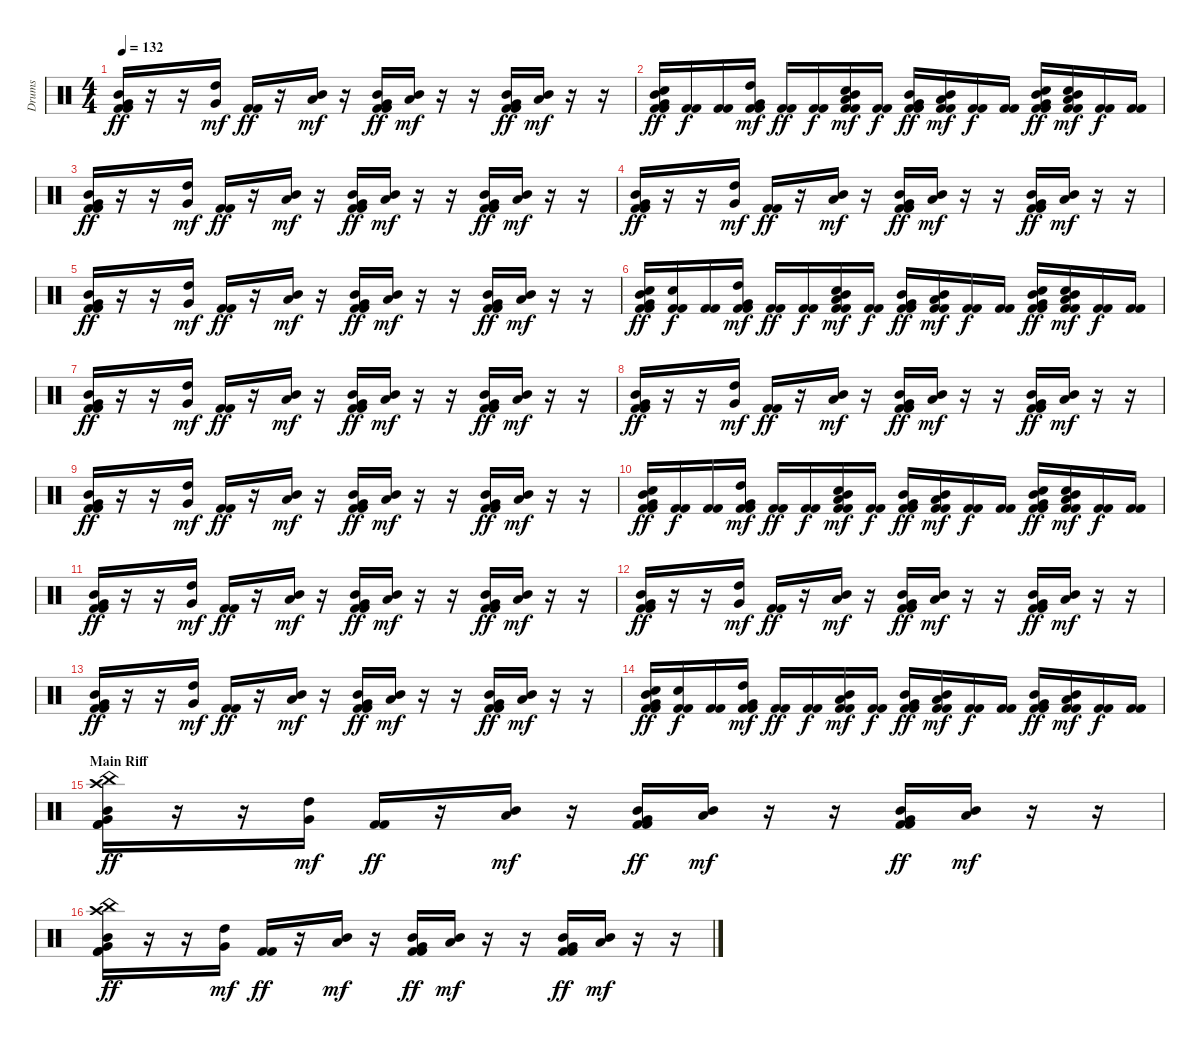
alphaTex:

\track ("Drums" "Drums") {instrument percussion}
\staff {score}
\articulation defaults
\ts (4 4)
\tempo 132
\clef neutral
\ks c
("Mid Tom (hit)" "Very Low Tom (hit)" "Kick (hit) 2" "Kick (hit) 2").16{dy ff} r.16 r.16 ("High Tom (hit)" "Very Low Tom (hit)").16{dy mf} ("Kick (hit) 2" "Kick (hit) 2").16{dy ff} r.16 ("Mid Tom (hit)" "Low Tom (hit)").16{dy mf} r.16 ("Mid Tom (hit)" "Very Low Tom (hit)" "Kick (hit) 2" "Kick (hit) 2").16{dy ff} ("Low Tom (hit)" "Mid Tom (hit)").16{dy mf} r.16 r.16 ("Mid Tom (hit)" "Very Low Tom (hit)" "Kick (hit) 2" "Kick (hit) 2").16{dy ff} ("Mid Tom (hit)" "Low Tom (hit)").16{dy mf} r.16 r.16 |
("Electric Snare (hit)" "Mid Tom (hit)" "Very Low Tom (hit)" "Kick (hit) 2" "Kick (hit) 2").16{dy ff} ("Kick (hit) 2" "Kick (hit) 2").16{dy f} ("Kick (hit) 2" "Kick (hit) 2").16 ("High Tom (hit)" "Very Low Tom (hit)" "Kick (hit) 2" "Kick (hit) 2").16{dy mf} ("Kick (hit) 2" "Kick (hit) 2").16{dy ff} ("Kick (hit) 2" "Kick (hit) 2").16{dy f} ("Electric Snare (hit)" "Mid Tom (hit)" "Low Tom (hit)" "Kick (hit) 2" "Kick (hit) 2").16{dy mf} ("Kick (hit) 2" "Kick (hit) 2").16{dy f} ("Mid Tom (hit)" "Very Low Tom (hit)" "Kick (hit) 2" "Kick (hit) 2").16{dy ff} ("Low Tom (hit)" "Mid Tom (hit)" "Kick (hit) 2" "Kick (hit) 2").16{dy mf} ("Kick (hit) 2" "Kick (hit) 2").16{dy f} ("Kick (hit) 2" "Kick (hit) 2").16 ("Electric Snare (hit)" "Mid Tom (hit)" "Very Low Tom (hit)" "Kick (hit) 2" "Kick (hit) 2").16{dy ff} ("Electric Snare (hit)" "Mid Tom (hit)" "Low Tom (hit)" "Kick (hit) 2" "Kick (hit) 2").16{dy mf} ("Kick (hit) 2" "Kick (hit) 2").16{dy f} ("Kick (hit) 2" "Kick (hit) 2").16 |
("Mid Tom (hit)" "Very Low Tom (hit)" "Kick (hit) 2" "Kick (hit) 2").16{dy ff} r.16 r.16 ("High Tom (hit)" "Very Low Tom (hit)").16{dy mf} ("Kick (hit) 2" "Kick (hit) 2").16{dy ff} r.16 ("Mid Tom (hit)" "Low Tom (hit)").16{dy mf} r.16 ("Mid Tom (hit)" "Very Low Tom (hit)" "Kick (hit) 2" "Kick (hit) 2").16{dy ff} ("Low Tom (hit)" "Mid Tom (hit)").16{dy mf} r.16 r.16 ("Mid Tom (hit)" "Very Low Tom (hit)" "Kick (hit) 2" "Kick (hit) 2").16{dy ff} ("Mid Tom (hit)" "Low Tom (hit)").16{dy mf} r.16 r.16 |
("Mid Tom (hit)" "Very Low Tom (hit)" "Kick (hit) 2" "Kick (hit) 2").16{dy ff} r.16 r.16 ("High Tom (hit)" "Very Low Tom (hit)").16{dy mf} ("Kick (hit) 2" "Kick (hit) 2").16{dy ff} r.16 ("Mid Tom (hit)" "Low Tom (hit)").16{dy mf} r.16 ("Mid Tom (hit)" "Very Low Tom (hit)" "Kick (hit) 2" "Kick (hit) 2").16{dy ff} ("Low Tom (hit)" "Mid Tom (hit)").16{dy mf} r.16 r.16 ("Mid Tom (hit)" "Very Low Tom (hit)" "Kick (hit) 2" "Kick (hit) 2").16{dy ff} ("Mid Tom (hit)" "Low Tom (hit)").16{dy mf} r.16 r.16 |
("Mid Tom (hit)" "Very Low Tom (hit)" "Kick (hit) 2" "Kick (hit) 2").16{dy ff} r.16 r.16 ("High Tom (hit)" "Very Low Tom (hit)").16{dy mf} ("Kick (hit) 2" "Kick (hit) 2").16{dy ff} r.16 ("Mid Tom (hit)" "Low Tom (hit)").16{dy mf} r.16 ("Mid Tom (hit)" "Very Low Tom (hit)" "Kick (hit) 2" "Kick (hit) 2").16{dy ff} ("Low Tom (hit)" "Mid Tom (hit)").16{dy mf} r.16 r.16 ("Mid Tom (hit)" "Very Low Tom (hit)" "Kick (hit) 2" "Kick (hit) 2").16{dy ff} ("Mid Tom (hit)" "Low Tom (hit)").16{dy mf} r.16 r.16 |
("Electric Snare (hit)" "Mid Tom (hit)" "Very Low Tom (hit)" "Kick (hit) 2" "Kick (hit) 2").16{dy ff} ("Electric Snare (hit)" "Kick (hit) 2" "Kick (hit) 2").16{dy f} ("Kick (hit) 2" "Kick (hit) 2").16 ("High Tom (hit)" "Very Low Tom (hit)" "Kick (hit) 2" "Kick (hit) 2").16{dy mf} ("Kick (hit) 2" "Kick (hit) 2").16{dy ff} ("Kick (hit) 2" "Kick (hit) 2").16{dy f} ("Electric Snare (hit)" "Mid Tom (hit)" "Low Tom (hit)" "Kick (hit) 2" "Kick (hit) 2").16{dy mf} ("Kick (hit) 2" "Kick (hit) 2").16{dy f} ("Mid Tom (hit)" "Very Low Tom (hit)" "Kick (hit) 2" "Kick (hit) 2").16{dy ff} ("Low Tom (hit)" "Mid Tom (hit)" "Kick (hit) 2" "Kick (hit) 2").16{dy mf} ("Kick (hit) 2" "Kick (hit) 2").16{dy f} ("Kick (hit) 2" "Kick (hit) 2").16 ("Electric Snare (hit)" "Mid Tom (hit)" "Very Low Tom (hit)" "Kick (hit) 2" "Kick (hit) 2").16{dy ff} ("Electric Snare (hit)" "Mid Tom (hit)" "Low Tom (hit)" "Kick (hit) 2" "Kick (hit) 2").16{dy mf} ("Kick (hit) 2" "Kick (hit) 2").16{dy f} ("Kick (hit) 2" "Kick (hit) 2").16 |
("Mid Tom (hit)" "Very Low Tom (hit)" "Kick (hit) 2" "Kick (hit) 2").16{dy ff} r.16 r.16 ("High Tom (hit)" "Very Low Tom (hit)").16{dy mf} ("Kick (hit) 2" "Kick (hit) 2").16{dy ff} r.16 ("Mid Tom (hit)" "Low Tom (hit)").16{dy mf} r.16 ("Mid Tom (hit)" "Very Low Tom (hit)" "Kick (hit) 2" "Kick (hit) 2").16{dy ff} ("Low Tom (hit)" "Mid Tom (hit)").16{dy mf} r.16 r.16 ("Mid Tom (hit)" "Very Low Tom (hit)" "Kick (hit) 2" "Kick (hit) 2").16{dy ff} ("Mid Tom (hit)" "Low Tom (hit)").16{dy mf} r.16 r.16 |
("Mid Tom (hit)" "Very Low Tom (hit)" "Kick (hit) 2" "Kick (hit) 2").16{dy ff} r.16 r.16 ("High Tom (hit)" "Very Low Tom (hit)").16{dy mf} ("Kick (hit) 2" "Kick (hit) 2").16{dy ff} r.16 ("Mid Tom (hit)" "Low Tom (hit)").16{dy mf} r.16 ("Mid Tom (hit)" "Very Low Tom (hit)" "Kick (hit) 2" "Kick (hit) 2").16{dy ff} ("Low Tom (hit)" "Mid Tom (hit)").16{dy mf} r.16 r.16 ("Mid Tom (hit)" "Very Low Tom (hit)" "Kick (hit) 2" "Kick (hit) 2").16{dy ff} ("Mid Tom (hit)" "Low Tom (hit)").16{dy mf} r.16 r.16 |
("Mid Tom (hit)" "Very Low Tom (hit)" "Kick (hit) 2" "Kick (hit) 2").16{dy ff} r.16 r.16 ("High Tom (hit)" "Very Low Tom (hit)").16{dy mf} ("Kick (hit) 2" "Kick (hit) 2").16{dy ff} r.16 ("Mid Tom (hit)" "Low Tom (hit)").16{dy mf} r.16 ("Mid Tom (hit)" "Very Low Tom (hit)" "Kick (hit) 2" "Kick (hit) 2").16{dy ff} ("Low Tom (hit)" "Mid Tom (hit)").16{dy mf} r.16 r.16 ("Mid Tom (hit)" "Very Low Tom (hit)" "Kick (hit) 2" "Kick (hit) 2").16{dy ff} ("Mid Tom (hit)" "Low Tom (hit)").16{dy mf} r.16 r.16 |
("Electric Snare (hit)" "Mid Tom (hit)" "Very Low Tom (hit)" "Kick (hit) 2" "Kick (hit) 2").16{dy ff} ("Kick (hit) 2" "Kick (hit) 2").16{dy f} ("Kick (hit) 2" "Kick (hit) 2").16 ("High Tom (hit)" "Very Low Tom (hit)" "Kick (hit) 2" "Kick (hit) 2").16{dy mf} ("Kick (hit) 2" "Kick (hit) 2").16{dy ff} ("Kick (hit) 2" "Kick (hit) 2").16{dy f} ("Electric Snare (hit)" "Mid Tom (hit)" "Low Tom (hit)" "Kick (hit) 2" "Kick (hit) 2").16{dy mf} ("Kick (hit) 2" "Kick (hit) 2").16{dy f} ("Mid Tom (hit)" "Very Low Tom (hit)" "Kick (hit) 2" "Kick (hit) 2").16{dy ff} ("Low Tom (hit)" "Mid Tom (hit)" "Kick (hit) 2" "Kick (hit) 2").16{dy mf} ("Kick (hit) 2" "Kick (hit) 2").16{dy f} ("Kick (hit) 2" "Kick (hit) 2").16 ("Electric Snare (hit)" "Mid Tom (hit)" "Very Low Tom (hit)" "Kick (hit) 2" "Kick (hit) 2").16{dy ff} ("Electric Snare (hit)" "Mid Tom (hit)" "Low Tom (hit)" "Kick (hit) 2" "Kick (hit) 2").16{dy mf} ("Kick (hit) 2" "Kick (hit) 2").16{dy f} ("Kick (hit) 2" "Kick (hit) 2").16 |
("Mid Tom (hit)" "Very Low Tom (hit)" "Kick (hit) 2" "Kick (hit) 2").16{dy ff} r.16 r.16 ("High Tom (hit)" "Very Low Tom (hit)").16{dy mf} ("Kick (hit) 2" "Kick (hit) 2").16{dy ff} r.16 ("Mid Tom (hit)" "Low Tom (hit)").16{dy mf} r.16 ("Mid Tom (hit)" "Very Low Tom (hit)" "Kick (hit) 2" "Kick (hit) 2").16{dy ff} ("Low Tom (hit)" "Mid Tom (hit)").16{dy mf} r.16 r.16 ("Mid Tom (hit)" "Very Low Tom (hit)" "Kick (hit) 2" "Kick (hit) 2").16{dy ff} ("Mid Tom (hit)" "Low Tom (hit)").16{dy mf} r.16 r.16 |
("Mid Tom (hit)" "Very Low Tom (hit)" "Kick (hit) 2" "Kick (hit) 2").16{dy ff} r.16 r.16 ("High Tom (hit)" "Very Low Tom (hit)").16{dy mf} ("Kick (hit) 2" "Kick (hit) 2").16{dy ff} r.16 ("Mid Tom (hit)" "Low Tom (hit)").16{dy mf} r.16 ("Mid Tom (hit)" "Very Low Tom (hit)" "Kick (hit) 2" "Kick (hit) 2").16{dy ff} ("Low Tom (hit)" "Mid Tom (hit)").16{dy mf} r.16 r.16 ("Mid Tom (hit)" "Very Low Tom (hit)" "Kick (hit) 2" "Kick (hit) 2").16{dy ff} ("Mid Tom (hit)" "Low Tom (hit)").16{dy mf} r.16 r.16 |
("Mid Tom (hit)" "Very Low Tom (hit)" "Kick (hit) 2" "Kick (hit) 2").16{dy ff} r.16 r.16 ("High Tom (hit)" "Very Low Tom (hit)").16{dy mf} ("Kick (hit) 2" "Kick (hit) 2").16{dy ff} r.16 ("Mid Tom (hit)" "Low Tom (hit)").16{dy mf} r.16 ("Mid Tom (hit)" "Very Low Tom (hit)" "Kick (hit) 2" "Kick (hit) 2").16{dy ff} ("Low Tom (hit)" "Mid Tom (hit)").16{dy mf} r.16 r.16 ("Mid Tom (hit)" "Very Low Tom (hit)" "Kick (hit) 2" "Kick (hit) 2").16{dy ff} ("Mid Tom (hit)" "Low Tom (hit)").16{dy mf} r.16 r.16 |
("Electric Snare (hit)" "Mid Tom (hit)" "Very Low Tom (hit)" "Kick (hit) 2" "Kick (hit) 2").16{dy ff} ("Electric Snare (hit)" "Kick (hit) 2" "Kick (hit) 2").16{dy f} ("Kick (hit) 2" "Kick (hit) 2").16 ("High Tom (hit)" "Very Low Tom (hit)" "Kick (hit) 2" "Kick (hit) 2").16{dy mf} ("Kick (hit) 2" "Kick (hit) 2").16{dy ff} ("Kick (hit) 2" "Kick (hit) 2").16{dy f} ("Mid Tom (hit)" "Low Tom (hit)" "Kick (hit) 2" "Kick (hit) 2").16{dy mf} ("Kick (hit) 2" "Kick (hit) 2").16{dy f} ("Mid Tom (hit)" "Very Low Tom (hit)" "Kick (hit) 2" "Kick (hit) 2").16{dy ff} ("Low Tom (hit)" "Mid Tom (hit)" "Kick (hit) 2" "Kick (hit) 2").16{dy mf} ("Kick (hit) 2" "Kick (hit) 2").16{dy f} ("Kick (hit) 2" "Kick (hit) 2").16 ("Mid Tom (hit)" "Very Low Tom (hit)" "Kick (hit) 2" "Kick (hit) 2").16{dy ff} ("Mid Tom (hit)" "Low Tom (hit)" "Kick (hit) 2" "Kick (hit) 2").16{dy mf} ("Kick (hit) 2" "Kick (hit) 2").16{dy f} ("Kick (hit) 2" "Kick (hit) 2").16 |
\section ("" "Main Riff")
("China (hit)" "Mid Tom (hit)" "Very Low Tom (hit)" "Crash high (hit)" "Kick (hit) 2" "Kick (hit) 2").16{dy ff} r.16 r.16 ("High Tom (hit)" "Very Low Tom (hit)").16{dy mf} ("Kick (hit) 2" "Kick (hit) 2").16{dy ff} r.16 ("Mid Tom (hit)" "Low Tom (hit)").16{dy mf} r.16 ("Mid Tom (hit)" "Very Low Tom (hit)" "Kick (hit) 2" "Kick (hit) 2").16{dy ff} ("Low Tom (hit)" "Mid Tom (hit)").16{dy mf} r.16 r.16 ("Mid Tom (hit)" "Very Low Tom (hit)" "Kick (hit) 2" "Kick (hit) 2").16{dy ff} ("Mid Tom (hit)" "Low Tom (hit)").16{dy mf} r.16 r.16 |
("China (hit)" "Mid Tom (hit)" "Very Low Tom (hit)" "Crash high (hit)" "Kick (hit) 2" "Kick (hit) 2").16{dy ff} r.16 r.16 ("High Tom (hit)" "Very Low Tom (hit)").16{dy mf} ("Kick (hit) 2" "Kick (hit) 2").16{dy ff} r.16 ("Mid Tom (hit)" "Low Tom (hit)").16{dy mf} r.16 ("Mid Tom (hit)" "Very Low Tom (hit)" "Kick (hit) 2" "Kick (hit) 2").16{dy ff} ("Low Tom (hit)" "Mid Tom (hit)").16{dy mf} r.16 r.16 ("Mid Tom (hit)" "Very Low Tom (hit)" "Kick (hit) 2" "Kick (hit) 2").16{dy ff} ("Mid Tom (hit)" "Low Tom (hit)").16{dy mf} r.16 r.16
